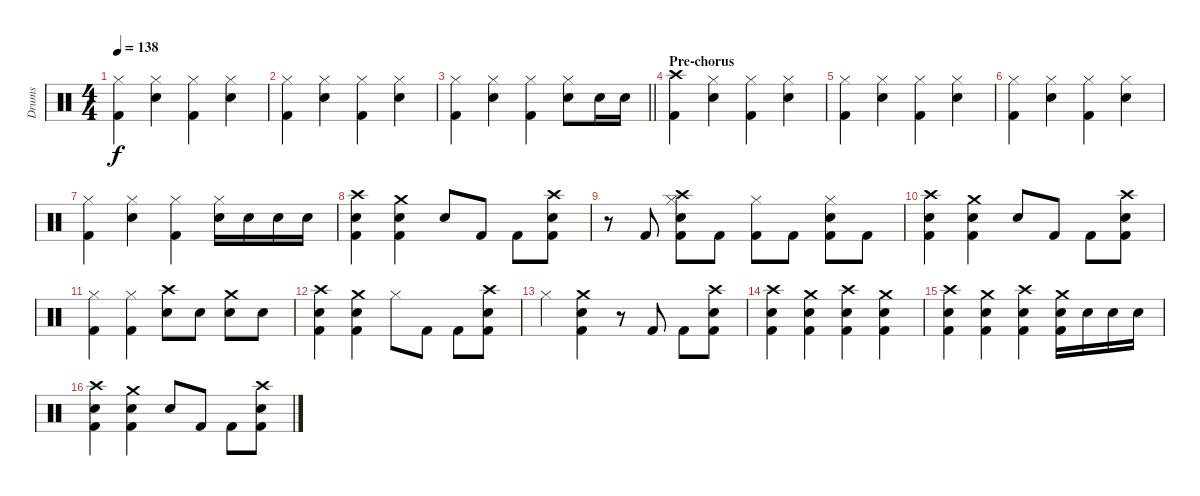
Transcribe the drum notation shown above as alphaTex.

\track ("Drums" "Drums") {instrument percussion}
\staff {score}
\articulation defaults
\ts (4 4)
\tempo 138
\clef neutral
\ks c
("Hi-Hat (closed)" "Kick (hit) 2").4{dy f} ("Snare (hit) 2" "Hi-Hat (closed)").4 ("Hi-Hat (closed)" "Kick (hit) 2").4 ("Snare (hit) 2" "Hi-Hat (closed)").4 |
("Hi-Hat (closed)" "Kick (hit) 2").4 ("Snare (hit) 2" "Hi-Hat (closed)").4 ("Hi-Hat (closed)" "Kick (hit) 2").4 ("Snare (hit) 2" "Hi-Hat (closed)").4 |
\barLineRight lightlight
("Hi-Hat (closed)" "Kick (hit) 2").4 ("Snare (hit) 2" "Hi-Hat (closed)").4 ("Hi-Hat (closed)" "Kick (hit) 2").4 ("Snare (hit) 2" "Hi-Hat (closed)").8 "Snare (hit) 2".16 "Snare (hit) 2".16 |
\section ("" "Pre-chorus")
("Crash high (hit)" "Kick (hit) 2").4 ("Snare (hit) 2" "Hi-Hat (closed)").4 ("Hi-Hat (closed)" "Kick (hit) 2").4 ("Snare (hit) 2" "Hi-Hat (closed)").4 |
("Hi-Hat (closed)" "Kick (hit) 2").4 ("Snare (hit) 2" "Hi-Hat (closed)").4 ("Hi-Hat (closed)" "Kick (hit) 2").4 ("Snare (hit) 2" "Hi-Hat (closed)").4 |
("Hi-Hat (closed)" "Kick (hit) 2").4 ("Snare (hit) 2" "Hi-Hat (closed)").4 ("Hi-Hat (closed)" "Kick (hit) 2").4 ("Snare (hit) 2" "Hi-Hat (closed)").4 |
("Hi-Hat (closed)" "Kick (hit) 2").4 ("Snare (hit) 2" "Hi-Hat (closed)").4 ("Hi-Hat (closed)" "Kick (hit) 2").4 ("Snare (hit) 2" "Hi-Hat (closed)").16 "Snare (hit) 2".16 "Snare (hit) 2".16 "Snare (hit) 2".16 |
("Crash high (hit)" "Snare (hit) 2" "Kick (hit) 2").4 ("Crash medium (hit)" "Snare (hit) 2" "Kick (hit) 2").4 "Snare (hit) 2".8 "Kick (hit) 2".8 "Kick (hit) 2".8 ("Crash high (hit)" "Snare (hit) 2" "Kick (hit) 2").8 |
r.8 "Kick (hit) 2".8 ("Crash high (hit)" "Snare (hit) 2" "Hi-Hat (closed)" "Kick (hit) 2").8 "Kick (hit) 2".8 ("Hi-Hat (closed)" "Kick (hit) 2").8 "Kick (hit) 2".8 ("Snare (hit) 2" "Hi-Hat (closed)" "Kick (hit) 2").8 "Kick (hit) 2".8 |
("Crash high (hit)" "Snare (hit) 2" "Kick (hit) 2").4 ("Crash medium (hit)" "Snare (hit) 2" "Kick (hit) 2").4 "Snare (hit) 2".8 "Kick (hit) 2".8 "Kick (hit) 2".8 ("Crash high (hit)" "Snare (hit) 2" "Kick (hit) 2").8 |
("Hi-Hat (closed)" "Kick (hit) 2").4 ("Hi-Hat (closed)" "Kick (hit) 2").4 ("Crash high (hit)" "Snare (hit) 2").8 "Snare (hit) 2".8 ("Crash medium (hit)" "Snare (hit) 2").8 "Snare (hit) 2".8 |
("Crash high (hit)" "Snare (hit) 2" "Kick (hit) 2").4 ("Crash medium (hit)" "Snare (hit) 2" "Kick (hit) 2").4 "Hi-Hat (closed)".8 "Kick (hit) 2".8 "Kick (hit) 2".8 ("Crash high (hit)" "Snare (hit) 2" "Kick (hit) 2").8 |
"Hi-Hat (closed)".4 ("Crash medium (hit)" "Snare (hit) 2" "Kick (hit) 2").4 r.8 "Kick (hit) 2".8 "Kick (hit) 2".8 ("Crash high (hit)" "Snare (hit) 2" "Kick (hit) 2").8 |
("Crash high (hit)" "Snare (hit) 2" "Kick (hit) 2").4 ("Crash medium (hit)" "Snare (hit) 2" "Kick (hit) 2").4 ("Crash high (hit)" "Snare (hit) 2" "Kick (hit) 2").4 ("Crash medium (hit)" "Snare (hit) 2" "Kick (hit) 2").4 |
("Crash high (hit)" "Snare (hit) 2" "Kick (hit) 2").4 ("Crash medium (hit)" "Snare (hit) 2" "Kick (hit) 2").4 ("Crash high (hit)" "Snare (hit) 2" "Kick (hit) 2").4 ("Crash medium (hit)" "Snare (hit) 2" "Kick (hit) 2").16 "Snare (hit) 2".16 "Snare (hit) 2".16 "Snare (hit) 2".16 |
("Crash high (hit)" "Snare (hit) 2" "Kick (hit) 2").4 ("Crash medium (hit)" "Snare (hit) 2" "Kick (hit) 2").4 "Snare (hit) 2".8 "Kick (hit) 2".8 "Kick (hit) 2".8 ("Crash high (hit)" "Snare (hit) 2" "Kick (hit) 2").8
